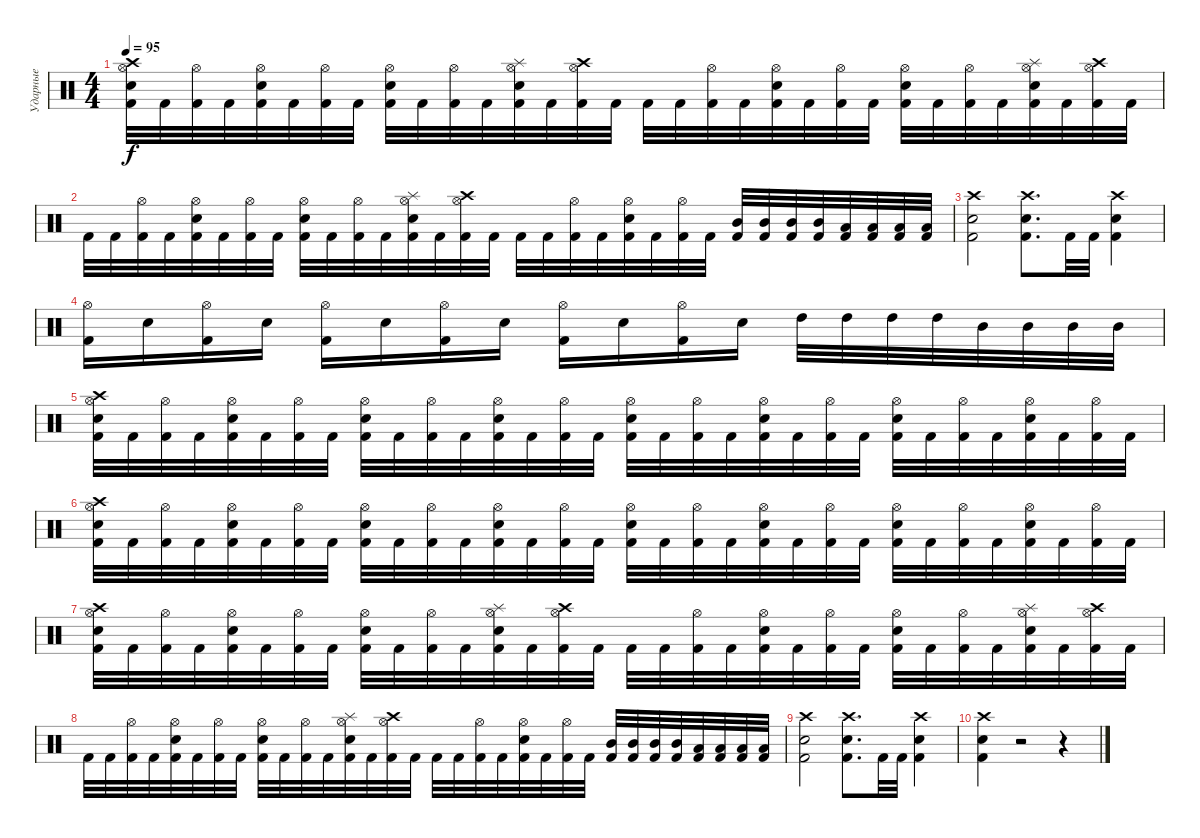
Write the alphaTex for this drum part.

\track ("Ударные" "Ударные") {instrument percussion}
\staff {score}
\articulation defaults
\ts (4 4)
\tempo 95
\clef neutral
\ks c
("Kick (hit) 2" "Electric Snare (hit)" "Hi-Hat (open)" "Crash high (hit)").32{dy f} "Kick (hit) 2".32 ("Kick (hit) 2" "Hi-Hat (open)").32 "Kick (hit) 2".32 ("Kick (hit) 2" "Electric Snare (hit)" "Hi-Hat (open)").32 "Kick (hit) 2".32 ("Kick (hit) 2" "Hi-Hat (open)").32 "Kick (hit) 2".32 ("Kick (hit) 2" "Electric Snare (hit)" "Hi-Hat (open)").32 "Kick (hit) 2".32 ("Kick (hit) 2" "Hi-Hat (open)").32 "Kick (hit) 2".32 ("Kick (hit) 2" "Electric Snare (hit)" "Hi-Hat (open)" "Splash (hit)").32 "Kick (hit) 2".32 ("Kick (hit) 2" "Hi-Hat (open)" "Crash high (hit)").32 "Kick (hit) 2".32 "Kick (hit) 2".32 "Kick (hit) 2".32 ("Kick (hit) 2" "Hi-Hat (open)").32 "Kick (hit) 2".32 ("Kick (hit) 2" "Electric Snare (hit)" "Hi-Hat (open)").32 "Kick (hit) 2".32 ("Kick (hit) 2" "Hi-Hat (open)").32 "Kick (hit) 2".32 ("Kick (hit) 2" "Electric Snare (hit)" "Hi-Hat (open)").32 "Kick (hit) 2".32 ("Kick (hit) 2" "Hi-Hat (open)").32 "Kick (hit) 2".32 ("Kick (hit) 2" "Electric Snare (hit)" "Hi-Hat (open)" "Splash (hit)").32 "Kick (hit) 2".32 ("Kick (hit) 2" "Hi-Hat (open)" "Crash high (hit)").32 "Kick (hit) 2".32 |
"Kick (hit) 2".32 "Kick (hit) 2".32 ("Kick (hit) 2" "Hi-Hat (open)").32 "Kick (hit) 2".32 ("Kick (hit) 2" "Electric Snare (hit)" "Hi-Hat (open)").32 "Kick (hit) 2".32 ("Kick (hit) 2" "Hi-Hat (open)").32 "Kick (hit) 2".32 ("Kick (hit) 2" "Electric Snare (hit)" "Hi-Hat (open)").32 "Kick (hit) 2".32 ("Kick (hit) 2" "Hi-Hat (open)").32 "Kick (hit) 2".32 ("Kick (hit) 2" "Electric Snare (hit)" "Hi-Hat (open)" "Splash (hit)").32 "Kick (hit) 2".32 ("Kick (hit) 2" "Hi-Hat (open)" "Crash high (hit)").32 "Kick (hit) 2".32 "Kick (hit) 2".32 "Kick (hit) 2".32 ("Kick (hit) 2" "Hi-Hat (open)").32 "Kick (hit) 2".32 ("Kick (hit) 2" "Electric Snare (hit)" "Hi-Hat (open)").32 "Kick (hit) 2".32 ("Kick (hit) 2" "Hi-Hat (open)").32 "Kick (hit) 2".32 ("Kick (hit) 2" "Mid Tom (hit)").32 ("Kick (hit) 2" "Mid Tom (hit)").32 ("Kick (hit) 2" "Mid Tom (hit)").32 ("Kick (hit) 2" "Mid Tom (hit)").32 ("Kick (hit) 2" "Low Tom (hit)").32 ("Kick (hit) 2" "Low Tom (hit)").32 ("Kick (hit) 2" "Low Tom (hit)").32 ("Kick (hit) 2" "Low Tom (hit)").32 |
("Crash high (hit)" "Electric Snare (hit)" "Kick (hit) 2").2 ("Crash high (hit)" "Electric Snare (hit)" "Kick (hit) 2").8{d} "Kick (hit) 2".32 "Kick (hit) 2".32 ("Electric Snare (hit)" "Crash high (hit)" "Kick (hit) 2").4 |
("Hi-Hat (open)" "Kick (hit) 2").16 "Electric Snare (hit)".16 ("Hi-Hat (open)" "Kick (hit) 2").16 "Electric Snare (hit)".16 ("Hi-Hat (open)" "Kick (hit) 2").16 "Electric Snare (hit)".16 ("Hi-Hat (open)" "Kick (hit) 2").16 "Electric Snare (hit)".16 ("Hi-Hat (open)" "Kick (hit) 2").16 "Electric Snare (hit)".16 ("Hi-Hat (open)" "Kick (hit) 2").16 "Electric Snare (hit)".16 "High Tom (hit)".32 "High Tom (hit)".32 "High Tom (hit)".32 "High Tom (hit)".32 "Mid Tom (hit)".32 "Mid Tom (hit)".32 "Mid Tom (hit)".32 "Mid Tom (hit)".32 |
("Kick (hit) 2" "Electric Snare (hit)" "Hi-Hat (open)" "Crash high (hit)").32 "Kick (hit) 2".32 ("Kick (hit) 2" "Hi-Hat (open)").32 "Kick (hit) 2".32 ("Kick (hit) 2" "Electric Snare (hit)" "Hi-Hat (open)").32 "Kick (hit) 2".32 ("Kick (hit) 2" "Hi-Hat (open)").32 "Kick (hit) 2".32 ("Kick (hit) 2" "Electric Snare (hit)" "Hi-Hat (open)").32 "Kick (hit) 2".32 ("Kick (hit) 2" "Hi-Hat (open)").32 "Kick (hit) 2".32 ("Kick (hit) 2" "Electric Snare (hit)" "Hi-Hat (open)").32 "Kick (hit) 2".32 ("Kick (hit) 2" "Hi-Hat (open)").32 "Kick (hit) 2".32 ("Kick (hit) 2" "Electric Snare (hit)" "Hi-Hat (open)").32 "Kick (hit) 2".32 ("Kick (hit) 2" "Hi-Hat (open)").32 "Kick (hit) 2".32 ("Kick (hit) 2" "Electric Snare (hit)" "Hi-Hat (open)").32 "Kick (hit) 2".32 ("Kick (hit) 2" "Hi-Hat (open)").32 "Kick (hit) 2".32 ("Kick (hit) 2" "Electric Snare (hit)" "Hi-Hat (open)").32 "Kick (hit) 2".32 ("Kick (hit) 2" "Hi-Hat (open)").32 "Kick (hit) 2".32 ("Kick (hit) 2" "Electric Snare (hit)" "Hi-Hat (open)").32 "Kick (hit) 2".32 ("Kick (hit) 2" "Hi-Hat (open)").32 "Kick (hit) 2".32 |
("Kick (hit) 2" "Electric Snare (hit)" "Hi-Hat (open)" "Crash high (hit)").32 "Kick (hit) 2".32 ("Kick (hit) 2" "Hi-Hat (open)").32 "Kick (hit) 2".32 ("Kick (hit) 2" "Electric Snare (hit)" "Hi-Hat (open)").32 "Kick (hit) 2".32 ("Kick (hit) 2" "Hi-Hat (open)").32 "Kick (hit) 2".32 ("Kick (hit) 2" "Electric Snare (hit)" "Hi-Hat (open)").32 "Kick (hit) 2".32 ("Kick (hit) 2" "Hi-Hat (open)").32 "Kick (hit) 2".32 ("Kick (hit) 2" "Electric Snare (hit)" "Hi-Hat (open)").32 "Kick (hit) 2".32 ("Kick (hit) 2" "Hi-Hat (open)").32 "Kick (hit) 2".32 ("Kick (hit) 2" "Electric Snare (hit)" "Hi-Hat (open)").32 "Kick (hit) 2".32 ("Kick (hit) 2" "Hi-Hat (open)").32 "Kick (hit) 2".32 ("Kick (hit) 2" "Electric Snare (hit)" "Hi-Hat (open)").32 "Kick (hit) 2".32 ("Kick (hit) 2" "Hi-Hat (open)").32 "Kick (hit) 2".32 ("Kick (hit) 2" "Electric Snare (hit)" "Hi-Hat (open)").32 "Kick (hit) 2".32 ("Kick (hit) 2" "Hi-Hat (open)").32 "Kick (hit) 2".32 ("Kick (hit) 2" "Electric Snare (hit)" "Hi-Hat (open)").32 "Kick (hit) 2".32 ("Kick (hit) 2" "Hi-Hat (open)").32 "Kick (hit) 2".32 |
("Kick (hit) 2" "Electric Snare (hit)" "Hi-Hat (open)" "Crash high (hit)").32 "Kick (hit) 2".32 ("Kick (hit) 2" "Hi-Hat (open)").32 "Kick (hit) 2".32 ("Kick (hit) 2" "Electric Snare (hit)" "Hi-Hat (open)").32 "Kick (hit) 2".32 ("Kick (hit) 2" "Hi-Hat (open)").32 "Kick (hit) 2".32 ("Kick (hit) 2" "Electric Snare (hit)" "Hi-Hat (open)").32 "Kick (hit) 2".32 ("Kick (hit) 2" "Hi-Hat (open)").32 "Kick (hit) 2".32 ("Kick (hit) 2" "Electric Snare (hit)" "Hi-Hat (open)" "Splash (hit)").32 "Kick (hit) 2".32 ("Kick (hit) 2" "Hi-Hat (open)" "Crash high (hit)").32 "Kick (hit) 2".32 "Kick (hit) 2".32 "Kick (hit) 2".32 ("Kick (hit) 2" "Hi-Hat (open)").32 "Kick (hit) 2".32 ("Kick (hit) 2" "Electric Snare (hit)" "Hi-Hat (open)").32 "Kick (hit) 2".32 ("Kick (hit) 2" "Hi-Hat (open)").32 "Kick (hit) 2".32 ("Kick (hit) 2" "Electric Snare (hit)" "Hi-Hat (open)").32 "Kick (hit) 2".32 ("Kick (hit) 2" "Hi-Hat (open)").32 "Kick (hit) 2".32 ("Kick (hit) 2" "Electric Snare (hit)" "Hi-Hat (open)" "Splash (hit)").32 "Kick (hit) 2".32 ("Kick (hit) 2" "Hi-Hat (open)" "Crash high (hit)").32 "Kick (hit) 2".32 |
"Kick (hit) 2".32 "Kick (hit) 2".32 ("Kick (hit) 2" "Hi-Hat (open)").32 "Kick (hit) 2".32 ("Kick (hit) 2" "Electric Snare (hit)" "Hi-Hat (open)").32 "Kick (hit) 2".32 ("Kick (hit) 2" "Hi-Hat (open)").32 "Kick (hit) 2".32 ("Kick (hit) 2" "Electric Snare (hit)" "Hi-Hat (open)").32 "Kick (hit) 2".32 ("Kick (hit) 2" "Hi-Hat (open)").32 "Kick (hit) 2".32 ("Kick (hit) 2" "Electric Snare (hit)" "Hi-Hat (open)" "Splash (hit)").32 "Kick (hit) 2".32 ("Kick (hit) 2" "Hi-Hat (open)" "Crash high (hit)").32 "Kick (hit) 2".32 "Kick (hit) 2".32 "Kick (hit) 2".32 ("Kick (hit) 2" "Hi-Hat (open)").32 "Kick (hit) 2".32 ("Kick (hit) 2" "Electric Snare (hit)" "Hi-Hat (open)").32 "Kick (hit) 2".32 ("Kick (hit) 2" "Hi-Hat (open)").32 "Kick (hit) 2".32 ("Kick (hit) 2" "Mid Tom (hit)").32 ("Kick (hit) 2" "Mid Tom (hit)").32 ("Kick (hit) 2" "Mid Tom (hit)").32 ("Kick (hit) 2" "Mid Tom (hit)").32 ("Kick (hit) 2" "Low Tom (hit)").32 ("Kick (hit) 2" "Low Tom (hit)").32 ("Kick (hit) 2" "Low Tom (hit)").32 ("Kick (hit) 2" "Low Tom (hit)").32 |
("Crash high (hit)" "Electric Snare (hit)" "Kick (hit) 2").2 ("Crash high (hit)" "Electric Snare (hit)" "Kick (hit) 2").8{d} "Kick (hit) 2".32 "Kick (hit) 2".32 ("Electric Snare (hit)" "Crash high (hit)" "Kick (hit) 2").4 |
("Crash high (hit)" "Electric Snare (hit)" "Kick (hit) 2").4 r.2 r.4
